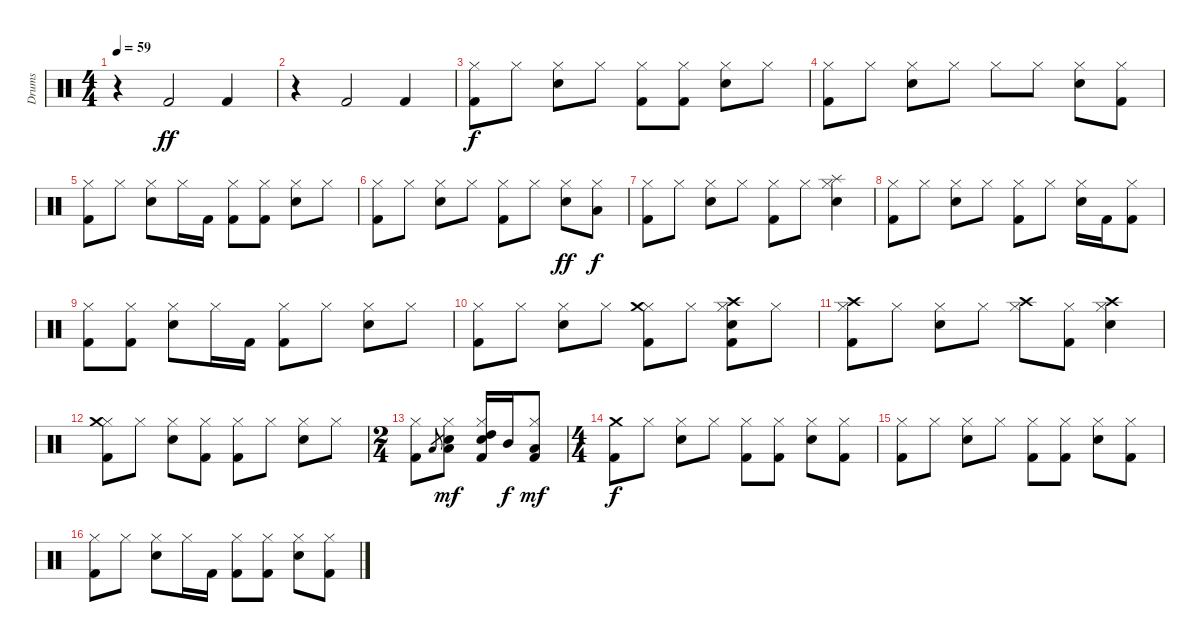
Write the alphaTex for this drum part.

\track ("Drums" "Drums") {instrument percussion}
\staff {score}
\articulation defaults
\ts (4 4)
\tempo 59
\clef neutral
\ks c
r.4{dy ff} "Kick (hit) 2".2 "Kick (hit) 2".4 |
r.4 "Kick (hit) 2".2 "Kick (hit) 2".4 |
("Hi-Hat (closed)" "Kick (hit) 2").8{dy f} "Hi-Hat (closed)".8 ("Hi-Hat (closed)" "Electric Snare (hit)").8 "Hi-Hat (closed)".8 ("Hi-Hat (closed)" "Kick (hit) 2").8 ("Hi-Hat (closed)" "Kick (hit) 2").8 ("Hi-Hat (closed)" "Electric Snare (hit)").8 "Hi-Hat (closed)".8 |
("Hi-Hat (closed)" "Kick (hit) 2").8 "Hi-Hat (closed)".8 ("Hi-Hat (closed)" "Electric Snare (hit)").8 "Hi-Hat (closed)".8 "Hi-Hat (closed)".8 "Hi-Hat (closed)".8 ("Hi-Hat (closed)" "Electric Snare (hit)").8 ("Hi-Hat (closed)" "Kick (hit) 2").8 |
("Hi-Hat (closed)" "Kick (hit) 2").8 "Hi-Hat (closed)".8 ("Hi-Hat (closed)" "Electric Snare (hit)").8 "Hi-Hat (closed)".16 "Kick (hit) 2".16 ("Hi-Hat (closed)" "Kick (hit) 2").8 ("Hi-Hat (closed)" "Kick (hit) 2").8 ("Hi-Hat (closed)" "Electric Snare (hit)").8 "Hi-Hat (closed)".8 |
("Hi-Hat (closed)" "Kick (hit) 2").8 "Hi-Hat (closed)".8 ("Hi-Hat (closed)" "Electric Snare (hit)").8 "Hi-Hat (closed)".8 ("Hi-Hat (closed)" "Kick (hit) 2").8 "Hi-Hat (closed)".8 ("Hi-Hat (closed)" "Electric Snare (hit)").8{dy ff} ("Hi-Hat (closed)" "Low Tom (hit)").8{dy f} |
("Hi-Hat (closed)" "Kick (hit) 2").8 "Hi-Hat (closed)".8 ("Hi-Hat (closed)" "Electric Snare (hit)").8 "Hi-Hat (closed)".8 ("Hi-Hat (closed)" "Kick (hit) 2").8 "Hi-Hat (closed)".8 ("Hi-Hat (closed)" "Splash (hit)" "Electric Snare (hit)").4 |
("Hi-Hat (closed)" "Kick (hit) 2").8 "Hi-Hat (closed)".8 ("Hi-Hat (closed)" "Electric Snare (hit)").8 "Hi-Hat (closed)".8 ("Hi-Hat (closed)" "Kick (hit) 2").8 "Hi-Hat (closed)".8 ("Hi-Hat (closed)" "Electric Snare (hit)").16 "Kick (hit) 2".16 ("Hi-Hat (closed)" "Kick (hit) 2").8 |
("Hi-Hat (closed)" "Kick (hit) 2").8 ("Hi-Hat (closed)" "Kick (hit) 2").8 ("Hi-Hat (closed)" "Electric Snare (hit)").8 "Hi-Hat (closed)".16 "Kick (hit) 2".16 ("Hi-Hat (closed)" "Kick (hit) 2").8 "Hi-Hat (closed)".8 ("Hi-Hat (closed)" "Electric Snare (hit)").8 "Hi-Hat (closed)".8 |
("Hi-Hat (closed)" "Kick (hit) 2").8 "Hi-Hat (closed)".8 ("Hi-Hat (closed)" "Electric Snare (hit)").8 "Hi-Hat (closed)".8 ("Hi-Hat (closed)" "Crash medium (hit)" "Kick (hit) 2").8 "Hi-Hat (closed)".8 ("Hi-Hat (closed)" "Electric Snare (hit)" "Crash high (hit)" "Kick (hit) 2").8 "Hi-Hat (closed)".8 |
("Hi-Hat (closed)" "Crash high (hit)" "Kick (hit) 2").8 "Hi-Hat (closed)".8 ("Hi-Hat (closed)" "Electric Snare (hit)").8 "Hi-Hat (closed)".8 ("Hi-Hat (closed)" "Crash high (hit)").8 ("Hi-Hat (closed)" "Kick (hit) 2").8 ("Hi-Hat (closed)" "Electric Snare (hit)" "Crash high (hit)").4 |
("Hi-Hat (closed)" "Crash medium (hit)" "Kick (hit) 2").8 "Hi-Hat (closed)".8 ("Hi-Hat (closed)" "Electric Snare (hit)").8 ("Hi-Hat (closed)" "Kick (hit) 2").8 ("Hi-Hat (closed)" "Kick (hit) 2").8 "Hi-Hat (closed)".8 ("Hi-Hat (closed)" "Electric Snare (hit)").8 "Hi-Hat (closed)".8 |
\ts (2 4)
("Hi-Hat (closed)" "Kick (hit) 2").8 "Low Tom (hit)".8{gr} ("Hi-Hat (closed)" "Electric Snare (hit)" "Low Tom (hit)").8{dy mf} ("Hi-Hat (closed)" "Electric Snare (hit)" "High Tom (hit)" "Kick (hit) 2").16 "Mid Tom (hit)".16{dy f} ("Hi-Hat (closed)" "Low Tom (hit)" "Kick (hit) 2").8{dy mf} |
\ts (4 4)
("Crash medium (hit)" "Kick (hit) 2").8{dy f} "Hi-Hat (closed)".8 ("Hi-Hat (closed)" "Electric Snare (hit)").8 "Hi-Hat (closed)".8 ("Hi-Hat (closed)" "Kick (hit) 2").8 ("Hi-Hat (closed)" "Kick (hit) 2").8 ("Hi-Hat (closed)" "Electric Snare (hit)").8 ("Hi-Hat (closed)" "Kick (hit) 2").8 |
("Hi-Hat (closed)" "Kick (hit) 2").8 "Hi-Hat (closed)".8 ("Hi-Hat (closed)" "Electric Snare (hit)").8 "Hi-Hat (closed)".8 ("Hi-Hat (closed)" "Kick (hit) 2").8 ("Hi-Hat (closed)" "Kick (hit) 2").8 ("Hi-Hat (closed)" "Electric Snare (hit)").8 ("Hi-Hat (closed)" "Kick (hit) 2").8 |
("Hi-Hat (closed)" "Kick (hit) 2").8 "Hi-Hat (closed)".8 ("Hi-Hat (closed)" "Electric Snare (hit)").8 "Hi-Hat (closed)".16 "Kick (hit) 2".16 ("Hi-Hat (closed)" "Kick (hit) 2").8 ("Hi-Hat (closed)" "Kick (hit) 2").8 ("Hi-Hat (closed)" "Electric Snare (hit)").8 ("Hi-Hat (closed)" "Kick (hit) 2").8
